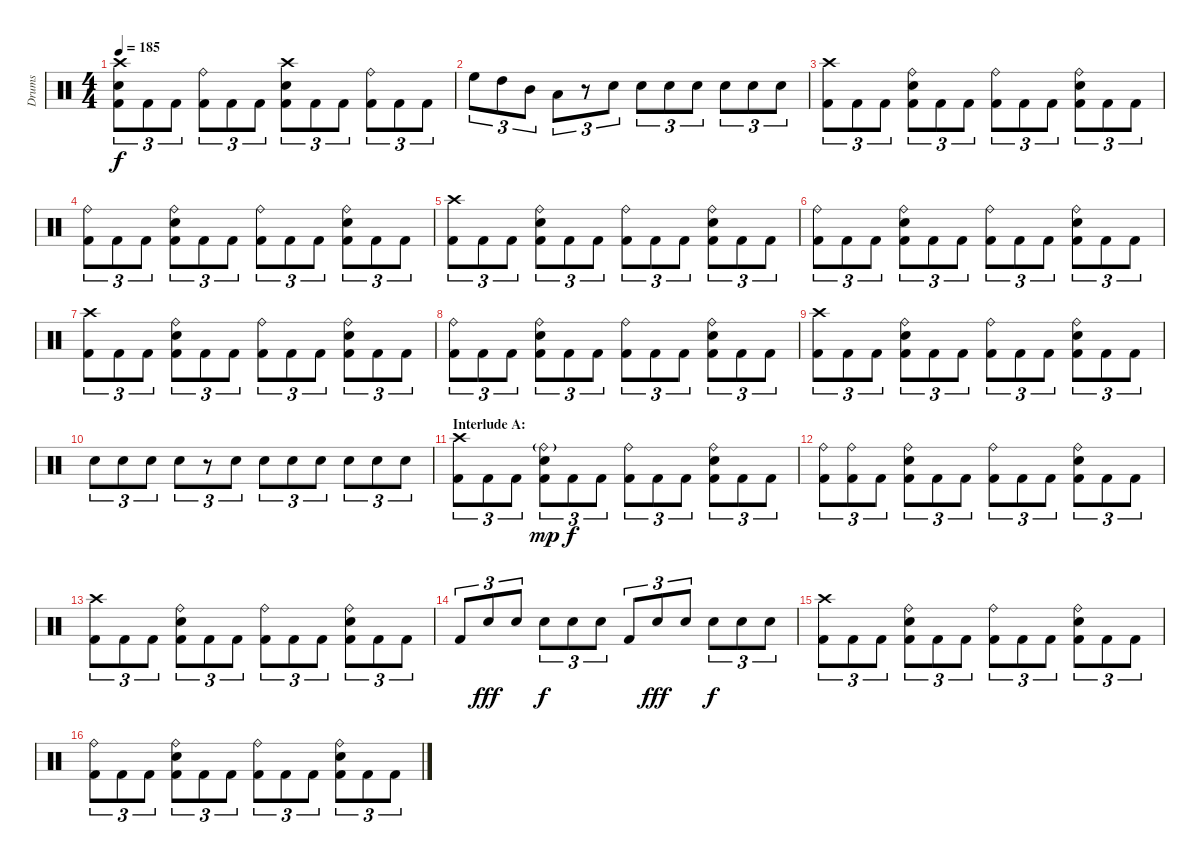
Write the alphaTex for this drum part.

\track ("Drums" "Drums") {instrument percussion}
\staff {score}
\articulation defaults
\ts (4 4)
\tempo 185
\clef neutral
\ks c
("Crash high (hit)" "Electric Snare (hit)" "Kick (hit) 2").8{tu (3 2) dy f} "Kick (hit) 2".8{tu (3 2)} "Kick (hit) 2".8{tu (3 2)} ("Ride (bell)" "Kick (hit) 2").8{tu (3 2)} "Kick (hit) 2".8{tu (3 2)} "Kick (hit) 2".8{tu (3 2)} ("Crash high (hit)" "Electric Snare (hit)" "Kick (hit) 2").8{tu (3 2)} "Kick (hit) 2".8{tu (3 2)} "Kick (hit) 2".8{tu (3 2)} ("Ride (bell)" "Kick (hit) 2").8{tu (3 2)} "Kick (hit) 2".8{tu (3 2)} "Kick (hit) 2".8{tu (3 2)} |
"High Floor Tom (hit)".8{tu (3 2)} "High Tom (hit)".8{tu (3 2)} "Mid Tom (hit)".8{tu (3 2)} "Low Tom (hit)".8{tu (3 2)} r.8{tu (3 2)} "Electric Snare (hit)".8{tu (3 2)} "Electric Snare (hit)".8{tu (3 2)} "Electric Snare (hit)".8{tu (3 2)} "Electric Snare (hit)".8{tu (3 2)} "Electric Snare (hit)".8{tu (3 2)} "Electric Snare (hit)".8{tu (3 2)} "Electric Snare (hit)".8{tu (3 2)} |
("Crash high (hit)" "Kick (hit) 2").8{tu (3 2)} "Kick (hit) 2".8{tu (3 2)} "Kick (hit) 2".8{tu (3 2)} ("Ride (bell)" "Electric Snare (hit)" "Kick (hit) 2").8{tu (3 2)} "Kick (hit) 2".8{tu (3 2)} "Kick (hit) 2".8{tu (3 2)} ("Ride (bell)" "Kick (hit) 2").8{tu (3 2)} "Kick (hit) 2".8{tu (3 2)} "Kick (hit) 2".8{tu (3 2)} ("Ride (bell)" "Electric Snare (hit)" "Kick (hit) 2").8{tu (3 2)} "Kick (hit) 2".8{tu (3 2)} "Kick (hit) 2".8{tu (3 2)} |
("Ride (bell)" "Kick (hit) 2").8{tu (3 2)} "Kick (hit) 2".8{tu (3 2)} "Kick (hit) 2".8{tu (3 2)} ("Ride (bell)" "Electric Snare (hit)" "Kick (hit) 2").8{tu (3 2)} "Kick (hit) 2".8{tu (3 2)} "Kick (hit) 2".8{tu (3 2)} ("Ride (bell)" "Kick (hit) 2").8{tu (3 2)} "Kick (hit) 2".8{tu (3 2)} "Kick (hit) 2".8{tu (3 2)} ("Ride (bell)" "Electric Snare (hit)" "Kick (hit) 2").8{tu (3 2)} "Kick (hit) 2".8{tu (3 2)} "Kick (hit) 2".8{tu (3 2)} |
("Crash high (hit)" "Kick (hit) 2").8{tu (3 2)} "Kick (hit) 2".8{tu (3 2)} "Kick (hit) 2".8{tu (3 2)} ("Ride (bell)" "Electric Snare (hit)" "Kick (hit) 2").8{tu (3 2)} "Kick (hit) 2".8{tu (3 2)} "Kick (hit) 2".8{tu (3 2)} ("Ride (bell)" "Kick (hit) 2").8{tu (3 2)} "Kick (hit) 2".8{tu (3 2)} "Kick (hit) 2".8{tu (3 2)} ("Ride (bell)" "Electric Snare (hit)" "Kick (hit) 2").8{tu (3 2)} "Kick (hit) 2".8{tu (3 2)} "Kick (hit) 2".8{tu (3 2)} |
("Ride (bell)" "Kick (hit) 2").8{tu (3 2)} "Kick (hit) 2".8{tu (3 2)} "Kick (hit) 2".8{tu (3 2)} ("Ride (bell)" "Electric Snare (hit)" "Kick (hit) 2").8{tu (3 2)} "Kick (hit) 2".8{tu (3 2)} "Kick (hit) 2".8{tu (3 2)} ("Ride (bell)" "Kick (hit) 2").8{tu (3 2)} "Kick (hit) 2".8{tu (3 2)} "Kick (hit) 2".8{tu (3 2)} ("Ride (bell)" "Electric Snare (hit)" "Kick (hit) 2").8{tu (3 2)} "Kick (hit) 2".8{tu (3 2)} "Kick (hit) 2".8{tu (3 2)} |
("Crash high (hit)" "Kick (hit) 2").8{tu (3 2)} "Kick (hit) 2".8{tu (3 2)} "Kick (hit) 2".8{tu (3 2)} ("Ride (bell)" "Electric Snare (hit)" "Kick (hit) 2").8{tu (3 2)} "Kick (hit) 2".8{tu (3 2)} "Kick (hit) 2".8{tu (3 2)} ("Ride (bell)" "Kick (hit) 2").8{tu (3 2)} "Kick (hit) 2".8{tu (3 2)} "Kick (hit) 2".8{tu (3 2)} ("Ride (bell)" "Electric Snare (hit)" "Kick (hit) 2").8{tu (3 2)} "Kick (hit) 2".8{tu (3 2)} "Kick (hit) 2".8{tu (3 2)} |
("Ride (bell)" "Kick (hit) 2").8{tu (3 2)} "Kick (hit) 2".8{tu (3 2)} "Kick (hit) 2".8{tu (3 2)} ("Ride (bell)" "Electric Snare (hit)" "Kick (hit) 2").8{tu (3 2)} "Kick (hit) 2".8{tu (3 2)} "Kick (hit) 2".8{tu (3 2)} ("Ride (bell)" "Kick (hit) 2").8{tu (3 2)} "Kick (hit) 2".8{tu (3 2)} "Kick (hit) 2".8{tu (3 2)} ("Ride (bell)" "Electric Snare (hit)" "Kick (hit) 2").8{tu (3 2)} "Kick (hit) 2".8{tu (3 2)} "Kick (hit) 2".8{tu (3 2)} |
("Crash high (hit)" "Kick (hit) 2").8{tu (3 2)} "Kick (hit) 2".8{tu (3 2)} "Kick (hit) 2".8{tu (3 2)} ("Ride (bell)" "Electric Snare (hit)" "Kick (hit) 2").8{tu (3 2)} "Kick (hit) 2".8{tu (3 2)} "Kick (hit) 2".8{tu (3 2)} ("Ride (bell)" "Kick (hit) 2").8{tu (3 2)} "Kick (hit) 2".8{tu (3 2)} "Kick (hit) 2".8{tu (3 2)} ("Ride (bell)" "Electric Snare (hit)" "Kick (hit) 2").8{tu (3 2)} "Kick (hit) 2".8{tu (3 2)} "Kick (hit) 2".8{tu (3 2)} |
"Electric Snare (hit)".8{tu (3 2)} "Electric Snare (hit)".8{tu (3 2)} "Electric Snare (hit)".8{tu (3 2)} "Electric Snare (hit)".8{tu (3 2)} r.8{tu (3 2)} "Electric Snare (hit)".8{tu (3 2)} "Electric Snare (hit)".8{tu (3 2)} "Electric Snare (hit)".8{tu (3 2)} "Electric Snare (hit)".8{tu (3 2)} "Electric Snare (hit)".8{tu (3 2)} "Electric Snare (hit)".8{tu (3 2)} "Electric Snare (hit)".8{tu (3 2)} |
\section ("" "Interlude A:")
("Crash high (hit)" "Kick (hit) 2").8{tu (3 2)} "Kick (hit) 2".8{tu (3 2)} "Kick (hit) 2".8{tu (3 2)} ("Ride (bell)"{g} "Electric Snare (hit)" "Kick (hit) 2").8{tu (3 2) dy mp} "Kick (hit) 2".8{tu (3 2) dy f} "Kick (hit) 2".8{tu (3 2)} ("Ride (bell)" "Kick (hit) 2").8{tu (3 2)} "Kick (hit) 2".8{tu (3 2)} "Kick (hit) 2".8{tu (3 2)} ("Ride (bell)" "Electric Snare (hit)" "Kick (hit) 2").8{tu (3 2)} "Kick (hit) 2".8{tu (3 2)} "Kick (hit) 2".8{tu (3 2)} |
("Ride (bell)" "Kick (hit) 2").8{tu (3 2)} ("Ride (bell)" "Kick (hit) 2").8{tu (3 2)} "Kick (hit) 2".8{tu (3 2)} ("Ride (bell)" "Electric Snare (hit)" "Kick (hit) 2").8{tu (3 2)} "Kick (hit) 2".8{tu (3 2)} "Kick (hit) 2".8{tu (3 2)} ("Ride (bell)" "Kick (hit) 2").8{tu (3 2)} "Kick (hit) 2".8{tu (3 2)} "Kick (hit) 2".8{tu (3 2)} ("Ride (bell)" "Electric Snare (hit)" "Kick (hit) 2").8{tu (3 2)} "Kick (hit) 2".8{tu (3 2)} "Kick (hit) 2".8{tu (3 2)} |
("Crash high (hit)" "Kick (hit) 2").8{tu (3 2)} "Kick (hit) 2".8{tu (3 2)} "Kick (hit) 2".8{tu (3 2)} ("Ride (bell)" "Electric Snare (hit)" "Kick (hit) 2").8{tu (3 2)} "Kick (hit) 2".8{tu (3 2)} "Kick (hit) 2".8{tu (3 2)} ("Ride (bell)" "Kick (hit) 2").8{tu (3 2)} "Kick (hit) 2".8{tu (3 2)} "Kick (hit) 2".8{tu (3 2)} ("Ride (bell)" "Electric Snare (hit)" "Kick (hit) 2").8{tu (3 2)} "Kick (hit) 2".8{tu (3 2)} "Kick (hit) 2".8{tu (3 2)} |
"Kick (hit) 2".8{tu (3 2)} "Electric Snare (hit)".8{tu (3 2) dy fff} "Electric Snare (hit)".8{tu (3 2)} "Electric Snare (hit)".8{tu (3 2) dy f} "Electric Snare (hit)".8{tu (3 2)} "Electric Snare (hit)".8{tu (3 2)} "Kick (hit) 2".8{tu (3 2)} "Electric Snare (hit)".8{tu (3 2) dy fff} "Electric Snare (hit)".8{tu (3 2)} "Electric Snare (hit)".8{tu (3 2) dy f} "Electric Snare (hit)".8{tu (3 2)} "Electric Snare (hit)".8{tu (3 2)} |
("Crash high (hit)" "Kick (hit) 2").8{tu (3 2)} "Kick (hit) 2".8{tu (3 2)} "Kick (hit) 2".8{tu (3 2)} ("Ride (bell)" "Electric Snare (hit)" "Kick (hit) 2").8{tu (3 2)} "Kick (hit) 2".8{tu (3 2)} "Kick (hit) 2".8{tu (3 2)} ("Ride (bell)" "Kick (hit) 2").8{tu (3 2)} "Kick (hit) 2".8{tu (3 2)} "Kick (hit) 2".8{tu (3 2)} ("Ride (bell)" "Electric Snare (hit)" "Kick (hit) 2").8{tu (3 2)} "Kick (hit) 2".8{tu (3 2)} "Kick (hit) 2".8{tu (3 2)} |
("Ride (bell)" "Kick (hit) 2").8{tu (3 2)} "Kick (hit) 2".8{tu (3 2)} "Kick (hit) 2".8{tu (3 2)} ("Ride (bell)" "Electric Snare (hit)" "Kick (hit) 2").8{tu (3 2)} "Kick (hit) 2".8{tu (3 2)} "Kick (hit) 2".8{tu (3 2)} ("Ride (bell)" "Kick (hit) 2").8{tu (3 2)} "Kick (hit) 2".8{tu (3 2)} "Kick (hit) 2".8{tu (3 2)} ("Ride (bell)" "Electric Snare (hit)" "Kick (hit) 2").8{tu (3 2)} "Kick (hit) 2".8{tu (3 2)} "Kick (hit) 2".8{tu (3 2)}
